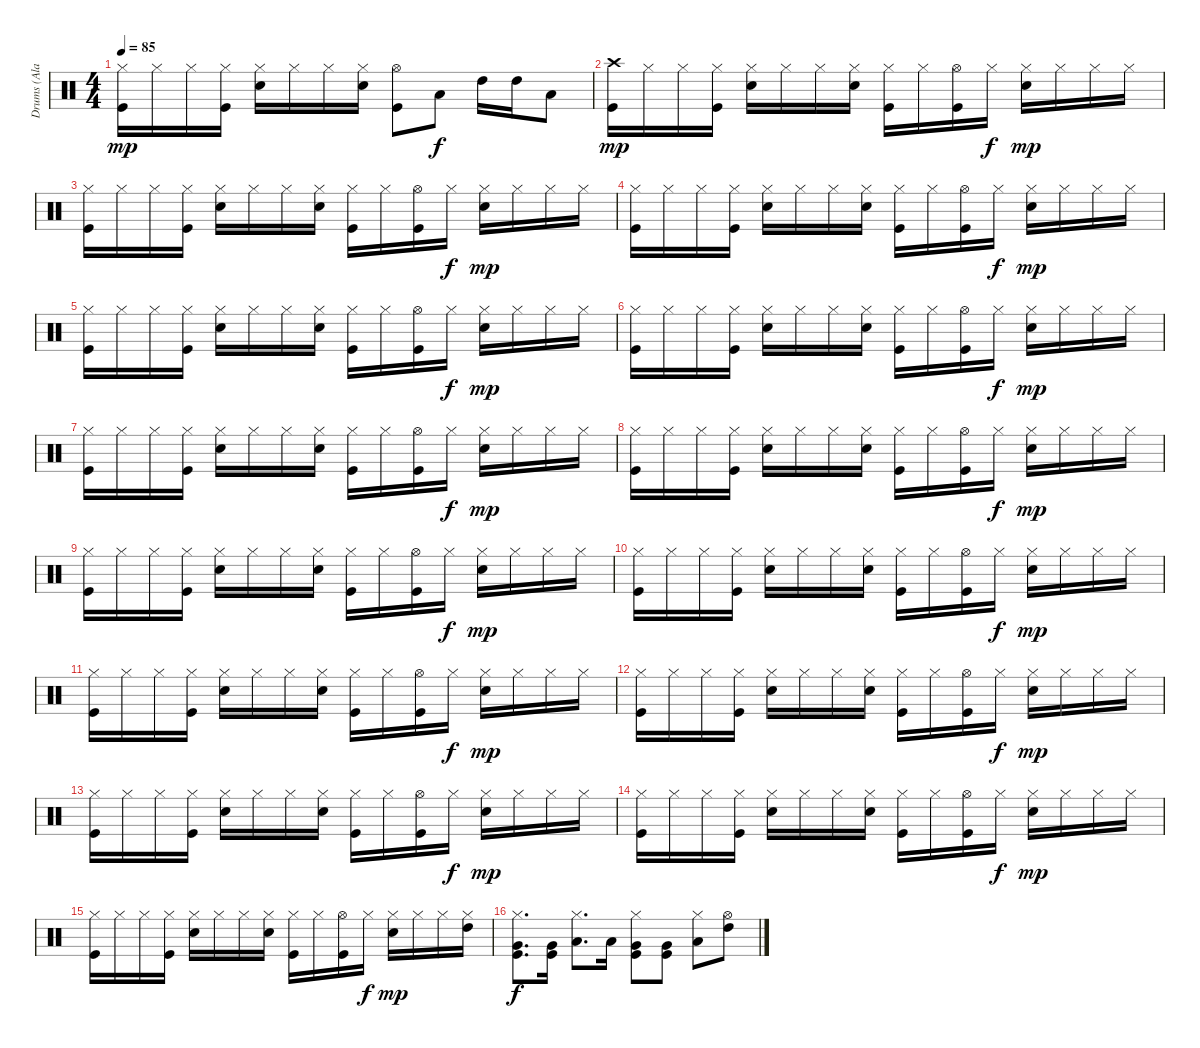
\track ("Drums (Alan White)" "Drums (Ala") {instrument percussion}
\staff {score}
\articulation defaults
\ts (4 4)
\tempo 85
\clef neutral
\ks c
("Hi-Hat (closed)" "Kick (hit)").16{dy mp} "Hi-Hat (closed)".16 "Hi-Hat (closed)".16 ("Hi-Hat (closed)" "Kick (hit)").16 ("Hi-Hat (closed)" "Snare (hit) 2").16 "Hi-Hat (closed)".16 "Hi-Hat (closed)".16 ("Hi-Hat (closed)" "Snare (hit) 2").16 ("Hi-Hat (open)" "Kick (hit)").8 "Low Tom (hit)".8{dy f} "High Tom (hit)".16 "High Tom (hit)".16 "Low Tom (hit)".8 |
("Crash high (hit)" "Kick (hit)").16{dy mp} "Hi-Hat (closed)".16 "Hi-Hat (closed)".16 ("Hi-Hat (closed)" "Kick (hit)").16 ("Hi-Hat (closed)" "Snare (hit) 2").16 "Hi-Hat (closed)".16 "Hi-Hat (closed)".16 ("Hi-Hat (closed)" "Snare (hit) 2").16 ("Hi-Hat (closed)" "Kick (hit)").16 "Hi-Hat (closed)".16 ("Hi-Hat (open)" "Kick (hit)").16 "Hi-Hat (closed)".16{dy f} ("Hi-Hat (closed)" "Snare (hit) 2").16{dy mp} "Hi-Hat (closed)".16 "Hi-Hat (closed)".16 "Hi-Hat (closed)".16 |
("Hi-Hat (closed)" "Kick (hit)").16 "Hi-Hat (closed)".16 "Hi-Hat (closed)".16 ("Hi-Hat (closed)" "Kick (hit)").16 ("Hi-Hat (closed)" "Snare (hit) 2").16 "Hi-Hat (closed)".16 "Hi-Hat (closed)".16 ("Hi-Hat (closed)" "Snare (hit) 2").16 ("Hi-Hat (closed)" "Kick (hit)").16 "Hi-Hat (closed)".16 ("Hi-Hat (open)" "Kick (hit)").16 "Hi-Hat (closed)".16{dy f} ("Hi-Hat (closed)" "Snare (hit) 2").16{dy mp} "Hi-Hat (closed)".16 "Hi-Hat (closed)".16 "Hi-Hat (closed)".16 |
("Hi-Hat (closed)" "Kick (hit)").16 "Hi-Hat (closed)".16 "Hi-Hat (closed)".16 ("Hi-Hat (closed)" "Kick (hit)").16 ("Hi-Hat (closed)" "Snare (hit) 2").16 "Hi-Hat (closed)".16 "Hi-Hat (closed)".16 ("Hi-Hat (closed)" "Snare (hit) 2").16 ("Hi-Hat (closed)" "Kick (hit)").16 "Hi-Hat (closed)".16 ("Hi-Hat (open)" "Kick (hit)").16 "Hi-Hat (closed)".16{dy f} ("Hi-Hat (closed)" "Snare (hit) 2").16{dy mp} "Hi-Hat (closed)".16 "Hi-Hat (closed)".16 "Hi-Hat (closed)".16 |
("Hi-Hat (closed)" "Kick (hit)").16 "Hi-Hat (closed)".16 "Hi-Hat (closed)".16 ("Hi-Hat (closed)" "Kick (hit)").16 ("Hi-Hat (closed)" "Snare (hit) 2").16 "Hi-Hat (closed)".16 "Hi-Hat (closed)".16 ("Hi-Hat (closed)" "Snare (hit) 2").16 ("Hi-Hat (closed)" "Kick (hit)").16 "Hi-Hat (closed)".16 ("Hi-Hat (open)" "Kick (hit)").16 "Hi-Hat (closed)".16{dy f} ("Hi-Hat (closed)" "Snare (hit) 2").16{dy mp} "Hi-Hat (closed)".16 "Hi-Hat (closed)".16 "Hi-Hat (closed)".16 |
("Hi-Hat (closed)" "Kick (hit)").16 "Hi-Hat (closed)".16 "Hi-Hat (closed)".16 ("Hi-Hat (closed)" "Kick (hit)").16 ("Hi-Hat (closed)" "Snare (hit) 2").16 "Hi-Hat (closed)".16 "Hi-Hat (closed)".16 ("Hi-Hat (closed)" "Snare (hit) 2").16 ("Hi-Hat (closed)" "Kick (hit)").16 "Hi-Hat (closed)".16 ("Hi-Hat (open)" "Kick (hit)").16 "Hi-Hat (closed)".16{dy f} ("Hi-Hat (closed)" "Snare (hit) 2").16{dy mp} "Hi-Hat (closed)".16 "Hi-Hat (closed)".16 "Hi-Hat (closed)".16 |
("Hi-Hat (closed)" "Kick (hit)").16 "Hi-Hat (closed)".16 "Hi-Hat (closed)".16 ("Hi-Hat (closed)" "Kick (hit)").16 ("Hi-Hat (closed)" "Snare (hit) 2").16 "Hi-Hat (closed)".16 "Hi-Hat (closed)".16 ("Hi-Hat (closed)" "Snare (hit) 2").16 ("Hi-Hat (closed)" "Kick (hit)").16 "Hi-Hat (closed)".16 ("Hi-Hat (open)" "Kick (hit)").16 "Hi-Hat (closed)".16{dy f} ("Hi-Hat (closed)" "Snare (hit) 2").16{dy mp} "Hi-Hat (closed)".16 "Hi-Hat (closed)".16 "Hi-Hat (closed)".16 |
("Hi-Hat (closed)" "Kick (hit)").16 "Hi-Hat (closed)".16 "Hi-Hat (closed)".16 ("Hi-Hat (closed)" "Kick (hit)").16 ("Hi-Hat (closed)" "Snare (hit) 2").16 "Hi-Hat (closed)".16 "Hi-Hat (closed)".16 ("Hi-Hat (closed)" "Snare (hit) 2").16 ("Hi-Hat (closed)" "Kick (hit)").16 "Hi-Hat (closed)".16 ("Hi-Hat (open)" "Kick (hit)").16 "Hi-Hat (closed)".16{dy f} ("Hi-Hat (closed)" "Snare (hit) 2").16{dy mp} "Hi-Hat (closed)".16 "Hi-Hat (closed)".16 "Hi-Hat (closed)".16 |
("Hi-Hat (closed)" "Kick (hit)").16 "Hi-Hat (closed)".16 "Hi-Hat (closed)".16 ("Hi-Hat (closed)" "Kick (hit)").16 ("Hi-Hat (closed)" "Snare (hit) 2").16 "Hi-Hat (closed)".16 "Hi-Hat (closed)".16 ("Hi-Hat (closed)" "Snare (hit) 2").16 ("Hi-Hat (closed)" "Kick (hit)").16 "Hi-Hat (closed)".16 ("Hi-Hat (open)" "Kick (hit)").16 "Hi-Hat (closed)".16{dy f} ("Hi-Hat (closed)" "Snare (hit) 2").16{dy mp} "Hi-Hat (closed)".16 "Hi-Hat (closed)".16 "Hi-Hat (closed)".16 |
("Hi-Hat (closed)" "Kick (hit)").16 "Hi-Hat (closed)".16 "Hi-Hat (closed)".16 ("Hi-Hat (closed)" "Kick (hit)").16 ("Hi-Hat (closed)" "Snare (hit) 2").16 "Hi-Hat (closed)".16 "Hi-Hat (closed)".16 ("Hi-Hat (closed)" "Snare (hit) 2").16 ("Hi-Hat (closed)" "Kick (hit)").16 "Hi-Hat (closed)".16 ("Hi-Hat (open)" "Kick (hit)").16 "Hi-Hat (closed)".16{dy f} ("Hi-Hat (closed)" "Snare (hit) 2").16{dy mp} "Hi-Hat (closed)".16 "Hi-Hat (closed)".16 "Hi-Hat (closed)".16 |
("Hi-Hat (closed)" "Kick (hit)").16 "Hi-Hat (closed)".16 "Hi-Hat (closed)".16 ("Hi-Hat (closed)" "Kick (hit)").16 ("Hi-Hat (closed)" "Snare (hit) 2").16 "Hi-Hat (closed)".16 "Hi-Hat (closed)".16 ("Hi-Hat (closed)" "Snare (hit) 2").16 ("Hi-Hat (closed)" "Kick (hit)").16 "Hi-Hat (closed)".16 ("Hi-Hat (open)" "Kick (hit)").16 "Hi-Hat (closed)".16{dy f} ("Hi-Hat (closed)" "Snare (hit) 2").16{dy mp} "Hi-Hat (closed)".16 "Hi-Hat (closed)".16 "Hi-Hat (closed)".16 |
("Hi-Hat (closed)" "Kick (hit)").16 "Hi-Hat (closed)".16 "Hi-Hat (closed)".16 ("Hi-Hat (closed)" "Kick (hit)").16 ("Hi-Hat (closed)" "Snare (hit) 2").16 "Hi-Hat (closed)".16 "Hi-Hat (closed)".16 ("Hi-Hat (closed)" "Snare (hit) 2").16 ("Hi-Hat (closed)" "Kick (hit)").16 "Hi-Hat (closed)".16 ("Hi-Hat (open)" "Kick (hit)").16 "Hi-Hat (closed)".16{dy f} ("Hi-Hat (closed)" "Snare (hit) 2").16{dy mp} "Hi-Hat (closed)".16 "Hi-Hat (closed)".16 "Hi-Hat (closed)".16 |
("Hi-Hat (closed)" "Kick (hit)").16 "Hi-Hat (closed)".16 "Hi-Hat (closed)".16 ("Hi-Hat (closed)" "Kick (hit)").16 ("Hi-Hat (closed)" "Snare (hit) 2").16 "Hi-Hat (closed)".16 "Hi-Hat (closed)".16 ("Hi-Hat (closed)" "Snare (hit) 2").16 ("Hi-Hat (closed)" "Kick (hit)").16 "Hi-Hat (closed)".16 ("Hi-Hat (open)" "Kick (hit)").16 "Hi-Hat (closed)".16{dy f} ("Hi-Hat (closed)" "Snare (hit) 2").16{dy mp} "Hi-Hat (closed)".16 "Hi-Hat (closed)".16 "Hi-Hat (closed)".16 |
("Hi-Hat (closed)" "Kick (hit)").16 "Hi-Hat (closed)".16 "Hi-Hat (closed)".16 ("Hi-Hat (closed)" "Kick (hit)").16 ("Hi-Hat (closed)" "Snare (hit) 2").16 "Hi-Hat (closed)".16 "Hi-Hat (closed)".16 ("Hi-Hat (closed)" "Snare (hit) 2").16 ("Hi-Hat (closed)" "Kick (hit)").16 "Hi-Hat (closed)".16 ("Hi-Hat (open)" "Kick (hit)").16 "Hi-Hat (closed)".16{dy f} ("Hi-Hat (closed)" "Snare (hit) 2").16{dy mp} "Hi-Hat (closed)".16 "Hi-Hat (closed)".16 "Hi-Hat (closed)".16 |
("Hi-Hat (closed)" "Kick (hit)").16 "Hi-Hat (closed)".16 "Hi-Hat (closed)".16 ("Hi-Hat (closed)" "Kick (hit)").16 ("Hi-Hat (closed)" "Snare (hit) 2").16 "Hi-Hat (closed)".16 "Hi-Hat (closed)".16 ("Hi-Hat (closed)" "Snare (hit) 2").16 ("Hi-Hat (closed)" "Kick (hit)").16 "Hi-Hat (closed)".16 ("Hi-Hat (open)" "Kick (hit)").16 "Hi-Hat (closed)".16{dy f} ("Hi-Hat (closed)" "Snare (hit) 2").16{dy mp} "Hi-Hat (closed)".16 "Hi-Hat (closed)".16 ("Hi-Hat (closed)" "High Tom (hit)").16 |
("Hi-Hat (closed)" "Very Low Tom (hit)" "Kick (hit)").8{d dy f} ("Very Low Tom (hit)" "Kick (hit)").16 ("Hi-Hat (closed)" "Low Tom (hit)").8{d} "Low Tom (hit)".16 ("Hi-Hat (closed)" "Very Low Tom (hit)" "Kick (hit)").8 ("Very Low Tom (hit)" "Kick (hit)").8 ("Hi-Hat (closed)" "Low Tom (hit)").8 ("Hi-Hat (open)" "High Tom (hit)").8
